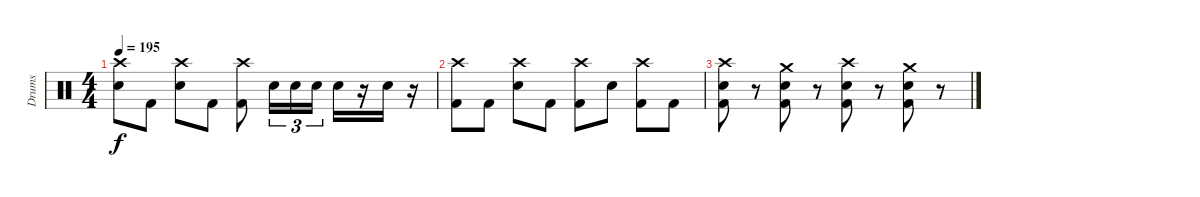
\track ("Drums" "Drums") {instrument percussion}
\staff {score}
\articulation defaults
\ts (4 4)
\tempo 195
\clef neutral
\ks c
("Crash high (hit)" "Electric Snare (hit)").8{dy f} "Kick (hit) 2".8 ("Crash high (hit)" "Electric Snare (hit)").8 "Kick (hit) 2".8 ("Crash high (hit)" "Kick (hit) 2").8 "Electric Snare (hit)".16{tu (3 2)} "Electric Snare (hit)".16{tu (3 2)} "Electric Snare (hit)".16{tu (3 2)} "Electric Snare (hit)".16 r.16 "Electric Snare (hit)".16 r.16 |
("Crash high (hit)" "Kick (hit) 2").8 "Kick (hit) 2".8 ("Crash high (hit)" "Electric Snare (hit)").8 "Kick (hit) 2".8 ("Crash high (hit)" "Kick (hit) 2").8 "Electric Snare (hit)".8 ("Crash high (hit)" "Kick (hit) 2").8 "Kick (hit) 2".8 |
("Crash high (hit)" "Electric Snare (hit)" "Kick (hit) 2").8 r.8 ("Crash medium (hit)" "Electric Snare (hit)" "Kick (hit) 2").8 r.8 ("Crash high (hit)" "Electric Snare (hit)" "Kick (hit) 2").8 r.8 ("Crash medium (hit)" "Electric Snare (hit)" "Kick (hit) 2").8 r.8
